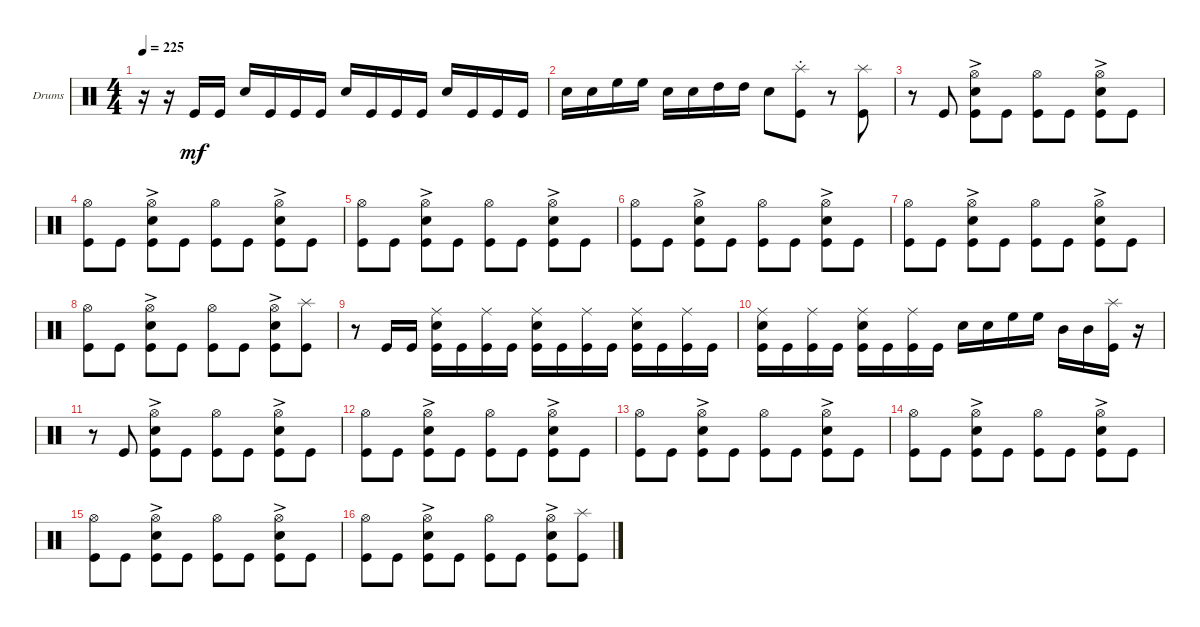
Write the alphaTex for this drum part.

\bracketExtendMode groupsimilarinstruments
\firstSystemTrackNameOrientation horizontal
\otherSystemsTrackNameOrientation horizontal
\track ("Drumkit" "Drums") {instrument percussion}
\staff {score}
\articulation defaults
\ts (4 4)
\tempo 225
\clef neutral
\ks c
r.16{dy mf} r.16 "Kick (hit)".16 "Kick (hit)".16 "Snare (hit) 2".16 "Kick (hit)".16 "Kick (hit)".16 "Kick (hit)".16 "Snare (hit) 2".16 "Kick (hit)".16 "Kick (hit)".16 "Kick (hit)".16 "Snare (hit) 2".16 "Kick (hit)".16 "Kick (hit)".16 "Kick (hit)".16 |
"Snare (hit) 2".16 "Snare (hit) 2".16 "High Floor Tom (hit)".16 "High Floor Tom (hit)".16 "Snare (hit) 2".16 "Snare (hit) 2".16 "High Tom (hit)".16 "High Tom (hit)".16 "Snare (hit) 2".8 ("Kick (hit)" "Splash (hit)"{st}).8 r.8 ("Kick (hit)" "Splash (hit)").8 |
r.8 "Kick (hit)".8 ("Snare (hit) 2"{ac} "Kick (hit)" "Hi-Hat (open)").8 "Kick (hit)".8 ("Kick (hit)" "Hi-Hat (open)").8 "Kick (hit)".8 ("Snare (hit) 2"{ac} "Kick (hit)" "Hi-Hat (open)").8 "Kick (hit)".8 |
("Kick (hit)" "Hi-Hat (open)").8 "Kick (hit)".8 ("Snare (hit) 2"{ac} "Kick (hit)" "Hi-Hat (open)").8 "Kick (hit)".8 ("Kick (hit)" "Hi-Hat (open)").8 "Kick (hit)".8 ("Snare (hit) 2"{ac} "Kick (hit)" "Hi-Hat (open)").8 "Kick (hit)".8 |
("Kick (hit)" "Hi-Hat (open)").8 "Kick (hit)".8 ("Snare (hit) 2"{ac} "Kick (hit)" "Hi-Hat (open)").8 "Kick (hit)".8 ("Kick (hit)" "Hi-Hat (open)").8 "Kick (hit)".8 ("Snare (hit) 2"{ac} "Kick (hit)" "Hi-Hat (open)").8 "Kick (hit)".8 |
("Kick (hit)" "Hi-Hat (open)").8 "Kick (hit)".8 ("Snare (hit) 2"{ac} "Kick (hit)" "Hi-Hat (open)").8 "Kick (hit)".8 ("Kick (hit)" "Hi-Hat (open)").8 "Kick (hit)".8 ("Snare (hit) 2"{ac} "Kick (hit)" "Hi-Hat (open)").8 "Kick (hit)".8 |
("Kick (hit)" "Hi-Hat (open)").8 "Kick (hit)".8 ("Snare (hit) 2"{ac} "Kick (hit)" "Hi-Hat (open)").8 "Kick (hit)".8 ("Kick (hit)" "Hi-Hat (open)").8 "Kick (hit)".8 ("Snare (hit) 2"{ac} "Kick (hit)" "Hi-Hat (open)").8 "Kick (hit)".8 |
("Kick (hit)" "Hi-Hat (open)").8 "Kick (hit)".8 ("Snare (hit) 2"{ac} "Kick (hit)" "Hi-Hat (open)").8 "Kick (hit)".8 ("Kick (hit)" "Hi-Hat (open)").8 "Kick (hit)".8 ("Snare (hit) 2"{ac} "Kick (hit)" "Hi-Hat (open)").8 ("Kick (hit)" "Splash (hit)").8 |
r.8 "Kick (hit)".16 "Kick (hit)".16 ("Snare (hit) 2" "Kick (hit)" "Ride (middle)").16 "Kick (hit)".16 ("Kick (hit)" "Ride (middle)").16 "Kick (hit)".16 ("Snare (hit) 2" "Kick (hit)" "Ride (middle)").16 "Kick (hit)".16 ("Kick (hit)" "Ride (middle)").16 "Kick (hit)".16 ("Snare (hit) 2" "Kick (hit)" "Ride (middle)").16 "Kick (hit)".16 ("Kick (hit)" "Ride (middle)").16 "Kick (hit)".16 |
("Snare (hit) 2" "Kick (hit)" "Ride (middle)").16 "Kick (hit)".16 ("Kick (hit)" "Ride (middle)").16 "Kick (hit)".16 ("Snare (hit) 2" "Kick (hit)" "Ride (middle)").16 "Kick (hit)".16 ("Kick (hit)" "Ride (middle)").16 "Kick (hit)".16 "Snare (hit) 2".16 "Snare (hit) 2".16 "High Floor Tom (hit)".16 "High Floor Tom (hit)".16 "Mid Tom (hit)".16 "Mid Tom (hit)".16 ("Kick (hit)" "Splash (hit)").16 r.16 |
r.8 "Kick (hit)".8 ("Snare (hit) 2"{ac} "Kick (hit)" "Hi-Hat (open)").8 "Kick (hit)".8 ("Kick (hit)" "Hi-Hat (open)").8 "Kick (hit)".8 ("Snare (hit) 2"{ac} "Kick (hit)" "Hi-Hat (open)").8 "Kick (hit)".8 |
("Kick (hit)" "Hi-Hat (open)").8 "Kick (hit)".8 ("Snare (hit) 2"{ac} "Kick (hit)" "Hi-Hat (open)").8 "Kick (hit)".8 ("Kick (hit)" "Hi-Hat (open)").8 "Kick (hit)".8 ("Snare (hit) 2"{ac} "Kick (hit)" "Hi-Hat (open)").8 "Kick (hit)".8 |
("Kick (hit)" "Hi-Hat (open)").8 "Kick (hit)".8 ("Snare (hit) 2"{ac} "Kick (hit)" "Hi-Hat (open)").8 "Kick (hit)".8 ("Kick (hit)" "Hi-Hat (open)").8 "Kick (hit)".8 ("Snare (hit) 2"{ac} "Kick (hit)" "Hi-Hat (open)").8 "Kick (hit)".8 |
("Kick (hit)" "Hi-Hat (open)").8 "Kick (hit)".8 ("Snare (hit) 2"{ac} "Kick (hit)" "Hi-Hat (open)").8 "Kick (hit)".8 ("Kick (hit)" "Hi-Hat (open)").8 "Kick (hit)".8 ("Snare (hit) 2"{ac} "Kick (hit)" "Hi-Hat (open)").8 "Kick (hit)".8 |
("Kick (hit)" "Hi-Hat (open)").8 "Kick (hit)".8 ("Snare (hit) 2"{ac} "Kick (hit)" "Hi-Hat (open)").8 "Kick (hit)".8 ("Kick (hit)" "Hi-Hat (open)").8 "Kick (hit)".8 ("Snare (hit) 2"{ac} "Kick (hit)" "Hi-Hat (open)").8 "Kick (hit)".8 |
("Kick (hit)" "Hi-Hat (open)").8 "Kick (hit)".8 ("Snare (hit) 2"{ac} "Kick (hit)" "Hi-Hat (open)").8 "Kick (hit)".8 ("Kick (hit)" "Hi-Hat (open)").8 "Kick (hit)".8 ("Snare (hit) 2"{ac} "Kick (hit)" "Hi-Hat (open)").8 ("Kick (hit)" "Splash (hit)").8
